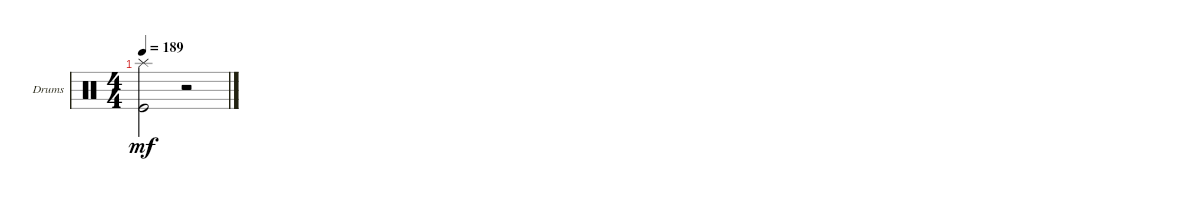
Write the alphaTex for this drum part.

\defaultSystemsLayout 4
\bracketExtendMode groupsimilarinstruments
\firstSystemTrackNameOrientation horizontal
\otherSystemsTrackNameOrientation horizontal
\track ("Drumkit" "Drums") {instrument percussion}
\staff {score}
\articulation defaults
\ts (4 4)
\tempo 189
\clef neutral
\ks c
("Kick (hit)" "Splash (hit)").2{dy mf} r.2
